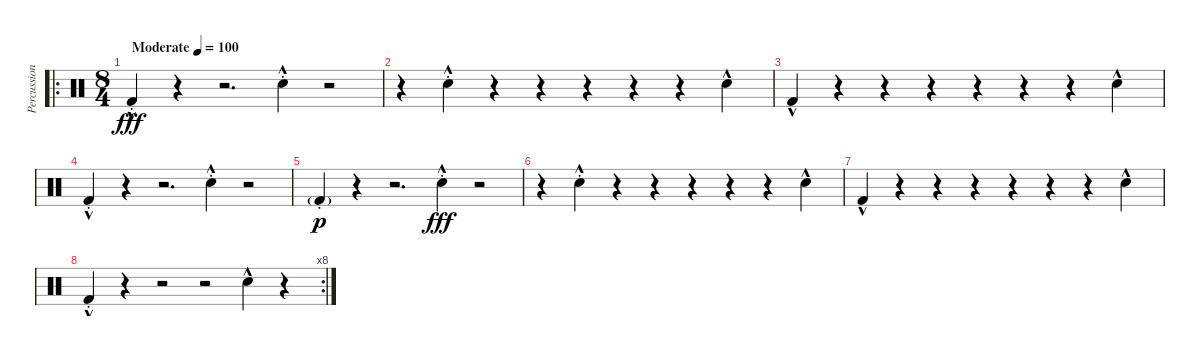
\track ("Percussion" "Percussion") {instrument percussion}
\staff {score}
\articulation defaults
\ro
\ts (8 4)
\tempo (100 "Moderate")
\clef neutral
\ks c "Kick (hit) 2"{hac st}.4{dy fff}
r.4 r.2{d} "Electric Snare (hit)"{hac st}.4 r.2 |
r.4 "Electric Snare (hit)"{hac st}.4 r.4 r.4 r.4 r.4 r.4 "Electric Snare (hit)"{hac}.4 |
"Kick (hit) 2"{hac}.4 r.4 r.4 r.4 r.4 r.4 r.4 "Electric Snare (hit)"{hac}.4 |
"Kick (hit) 2"{hac st}.4 r.4 r.2{d} "Electric Snare (hit)"{hac st}.4 r.2 |
"Kick (hit) 2"{g st}.4{dy p} r.4 r.2{d} "Electric Snare (hit)"{hac st}.4{dy fff} r.2 |
r.4 "Electric Snare (hit)"{hac st}.4 r.4 r.4 r.4 r.4 r.4 "Electric Snare (hit)"{hac}.4 |
"Kick (hit) 2"{hac}.4 r.4 r.4 r.4 r.4 r.4 r.4 "Electric Snare (hit)"{hac}.4 |
\rc 8 "Kick (hit) 2"{hac st}.4
r.4 r.2 r.2 "Electric Snare (hit)"{hac}.4 r.4
